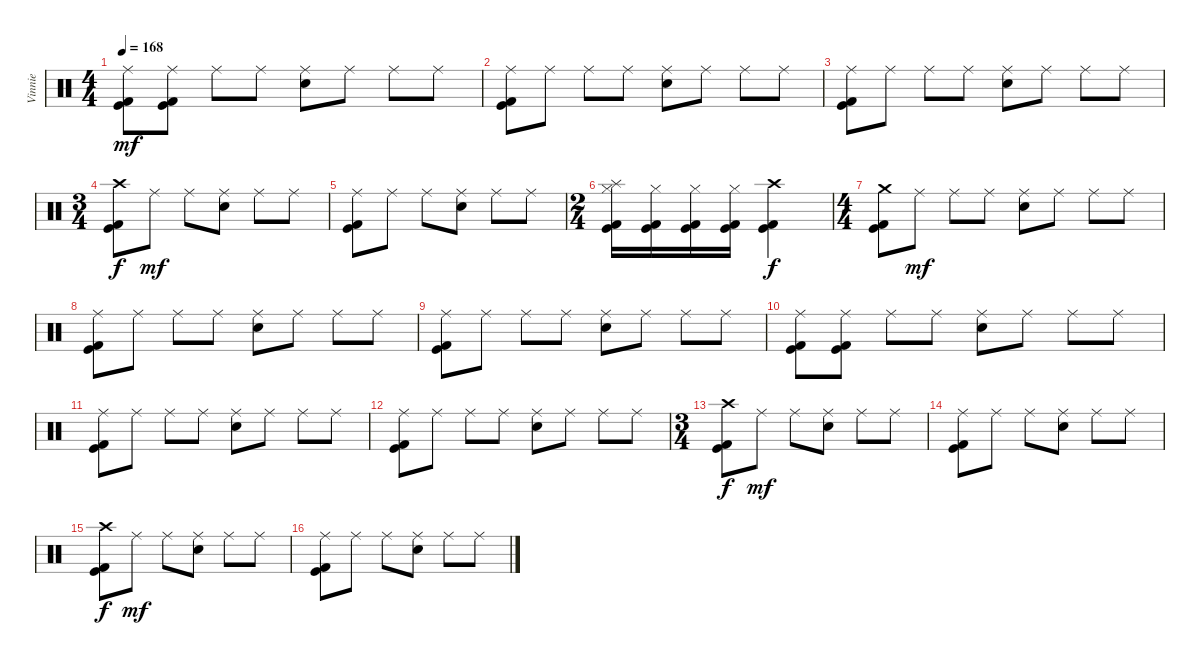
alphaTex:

\track ("Vinnie" "Vinnie") {instrument percussion}
\staff {score}
\articulation defaults
\ts (4 4)
\tempo 168
\clef neutral
\ks c
("Ride (middle)" "Kick (hit)" "Kick (hit) 2").8{dy mf} ("Ride (middle)" "Kick (hit)" "Kick (hit) 2").8 "Ride (middle)".8 "Ride (middle)".8 ("Ride (middle)" "Electric Snare (hit)").8 "Ride (middle)".8 "Ride (middle)".8 "Ride (middle)".8 |
("Ride (middle)" "Kick (hit)" "Kick (hit) 2").8 "Ride (middle)".8 "Ride (middle)".8 "Ride (middle)".8 ("Ride (middle)" "Electric Snare (hit)").8 "Ride (middle)".8 "Ride (middle)".8 "Ride (middle)".8 |
("Ride (middle)" "Kick (hit)" "Kick (hit) 2").8 "Ride (middle)".8 "Ride (middle)".8 "Ride (middle)".8 ("Ride (middle)" "Electric Snare (hit)").8 "Ride (middle)".8 "Ride (middle)".8 "Ride (middle)".8 |
\ts (3 4)
("Crash high (hit)" "Kick (hit)" "Kick (hit) 2").8{dy f} "Ride (middle)".8{dy mf} "Ride (middle)".8 ("Ride (middle)" "Electric Snare (hit)").8 "Ride (middle)".8 "Ride (middle)".8 |
("Ride (middle)" "Kick (hit)" "Kick (hit) 2").8 "Ride (middle)".8 "Ride (middle)".8 ("Ride (middle)" "Electric Snare (hit)").8 "Ride (middle)".8 "Ride (middle)".8 |
\ts (2 4)
("Hi-Hat (closed)" "Splash (hit)" "Kick (hit)" "Kick (hit) 2").16 ("Hi-Hat (closed)" "Kick (hit)" "Kick (hit) 2").16 ("Hi-Hat (closed)" "Kick (hit)" "Kick (hit) 2").16 ("Hi-Hat (closed)" "Kick (hit)" "Kick (hit) 2").16 ("Crash high (hit)" "Kick (hit)" "Kick (hit) 2").4{dy f} |
\ts (4 4)
("Crash medium (hit)" "Kick (hit)" "Kick (hit) 2").8 "Ride (middle)".8{dy mf} "Ride (middle)".8 "Ride (middle)".8 ("Ride (middle)" "Electric Snare (hit)").8 "Ride (middle)".8 "Ride (middle)".8 "Ride (middle)".8 |
("Ride (middle)" "Kick (hit)" "Kick (hit) 2").8 "Ride (middle)".8 "Ride (middle)".8 "Ride (middle)".8 ("Ride (middle)" "Electric Snare (hit)").8 "Ride (middle)".8 "Ride (middle)".8 "Ride (middle)".8 |
("Ride (middle)" "Kick (hit)" "Kick (hit) 2").8 "Ride (middle)".8 "Ride (middle)".8 "Ride (middle)".8 ("Ride (middle)" "Electric Snare (hit)").8 "Ride (middle)".8 "Ride (middle)".8 "Ride (middle)".8 |
("Ride (middle)" "Kick (hit)" "Kick (hit) 2").8 ("Ride (middle)" "Kick (hit)" "Kick (hit) 2").8 "Ride (middle)".8 "Ride (middle)".8 ("Ride (middle)" "Electric Snare (hit)").8 "Ride (middle)".8 "Ride (middle)".8 "Ride (middle)".8 |
("Ride (middle)" "Kick (hit)" "Kick (hit) 2").8 "Ride (middle)".8 "Ride (middle)".8 "Ride (middle)".8 ("Ride (middle)" "Electric Snare (hit)").8 "Ride (middle)".8 "Ride (middle)".8 "Ride (middle)".8 |
("Ride (middle)" "Kick (hit)" "Kick (hit) 2").8 "Ride (middle)".8 "Ride (middle)".8 "Ride (middle)".8 ("Ride (middle)" "Electric Snare (hit)").8 "Ride (middle)".8 "Ride (middle)".8 "Ride (middle)".8 |
\ts (3 4)
("Crash high (hit)" "Kick (hit)" "Kick (hit) 2").8{dy f} "Ride (middle)".8{dy mf} "Ride (middle)".8 ("Ride (middle)" "Electric Snare (hit)").8 "Ride (middle)".8 "Ride (middle)".8 |
("Ride (middle)" "Kick (hit)" "Kick (hit) 2").8 "Ride (middle)".8 "Ride (middle)".8 ("Ride (middle)" "Electric Snare (hit)").8 "Ride (middle)".8 "Ride (middle)".8 |
("Crash high (hit)" "Kick (hit)" "Kick (hit) 2").8{dy f} "Ride (middle)".8{dy mf} "Ride (middle)".8 ("Ride (middle)" "Electric Snare (hit)").8 "Ride (middle)".8 "Ride (middle)".8 |
("Ride (middle)" "Kick (hit)" "Kick (hit) 2").8 "Ride (middle)".8 "Ride (middle)".8 ("Ride (middle)" "Electric Snare (hit)").8 "Ride (middle)".8 "Ride (middle)".8
